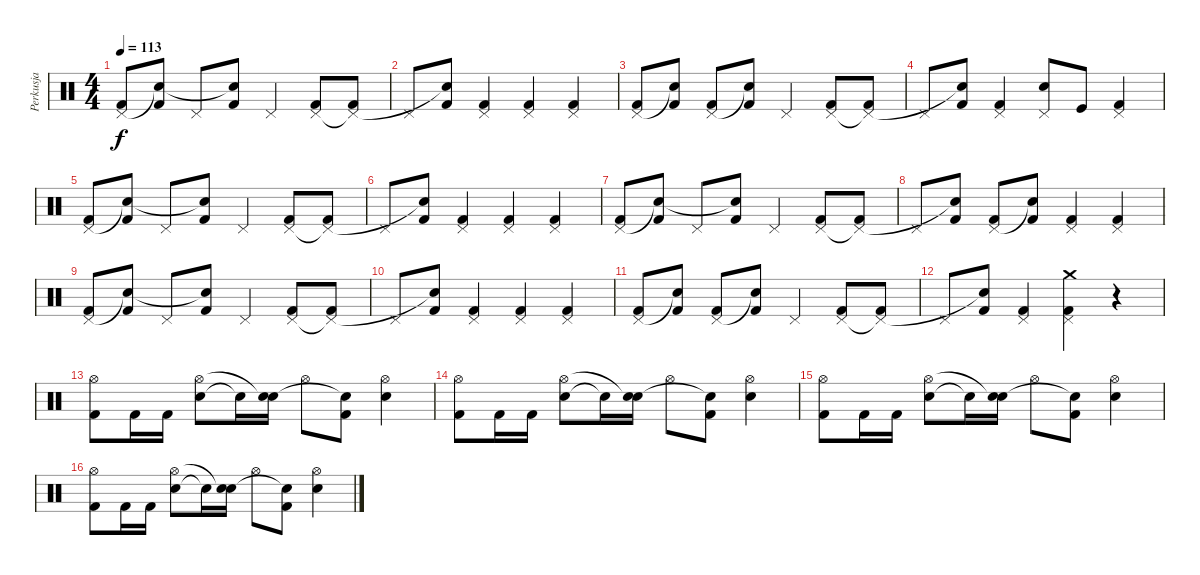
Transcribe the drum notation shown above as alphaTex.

\track ("Perkusja" "Perkusja") {instrument percussion}
\staff {score}
\articulation defaults
\ts (4 4)
\tempo 113
\clef neutral
\ks c
("Kick (hit) 2" "Pedal Hi-Hat (hit)").8{dy f} ("Kick (hit) 2" "Snare (hit)"{t}).8 "Pedal Hi-Hat (hit)".8 ("Kick (hit) 2" "Snare (hit)"{t}).8 "Pedal Hi-Hat (hit)".4 ("Kick (hit) 2" "Pedal Hi-Hat (hit)").8 ("Kick (hit) 2" "Pedal Hi-Hat (hit)"{t}).8 |
"Pedal Hi-Hat (hit)".8 ("Kick (hit) 2" "Snare (hit)"{t}).8 ("Kick (hit) 2" "Pedal Hi-Hat (hit)").4 ("Kick (hit) 2" "Pedal Hi-Hat (hit)").4 ("Kick (hit) 2" "Pedal Hi-Hat (hit)").4 |
("Kick (hit) 2" "Pedal Hi-Hat (hit)").8 ("Kick (hit) 2" "Snare (hit)"{t}).8 ("Kick (hit) 2" "Pedal Hi-Hat (hit)").8 ("Kick (hit) 2" "Snare (hit)"{t}).8 "Pedal Hi-Hat (hit)".4 ("Kick (hit) 2" "Pedal Hi-Hat (hit)").8 ("Kick (hit) 2" "Pedal Hi-Hat (hit)"{t}).8 |
"Pedal Hi-Hat (hit)".8 ("Kick (hit) 2" "Snare (hit)"{t}).8 ("Kick (hit) 2" "Pedal Hi-Hat (hit)").4 ("Snare (hit) 2" "Pedal Hi-Hat (hit)").8 "Kick (hit)".8 ("Kick (hit) 2" "Pedal Hi-Hat (hit)").4 |
("Kick (hit) 2" "Pedal Hi-Hat (hit)").8 ("Kick (hit) 2" "Snare (hit)"{t}).8 "Pedal Hi-Hat (hit)".8 ("Kick (hit) 2" "Snare (hit)"{t}).8 "Pedal Hi-Hat (hit)".4 ("Kick (hit) 2" "Pedal Hi-Hat (hit)").8 ("Kick (hit) 2" "Pedal Hi-Hat (hit)"{t}).8 |
"Pedal Hi-Hat (hit)".8 ("Kick (hit) 2" "Snare (hit)"{t}).8 ("Kick (hit) 2" "Pedal Hi-Hat (hit)").4 ("Kick (hit) 2" "Pedal Hi-Hat (hit)").4 ("Kick (hit) 2" "Pedal Hi-Hat (hit)").4 |
("Kick (hit) 2" "Pedal Hi-Hat (hit)").8 ("Kick (hit) 2" "Snare (hit)"{t}).8 "Pedal Hi-Hat (hit)".8 ("Kick (hit) 2" "Snare (hit)"{t}).8 "Pedal Hi-Hat (hit)".4 ("Kick (hit) 2" "Pedal Hi-Hat (hit)").8 ("Kick (hit) 2" "Pedal Hi-Hat (hit)"{t}).8 |
"Pedal Hi-Hat (hit)".8 ("Kick (hit) 2" "Snare (hit)"{t}).8 ("Kick (hit) 2" "Pedal Hi-Hat (hit)").8 ("Kick (hit) 2" "Snare (hit)"{t}).8 ("Kick (hit) 2" "Pedal Hi-Hat (hit)").4 ("Kick (hit) 2" "Pedal Hi-Hat (hit)").4 |
("Kick (hit) 2" "Pedal Hi-Hat (hit)").8 ("Kick (hit) 2" "Snare (hit)"{t}).8 "Pedal Hi-Hat (hit)".8 ("Kick (hit) 2" "Snare (hit)"{t}).8 "Pedal Hi-Hat (hit)".4 ("Kick (hit) 2" "Pedal Hi-Hat (hit)").8 ("Kick (hit) 2" "Pedal Hi-Hat (hit)"{t}).8 |
"Pedal Hi-Hat (hit)".8 ("Kick (hit) 2" "Snare (hit)"{t}).8 ("Kick (hit) 2" "Pedal Hi-Hat (hit)").4 ("Kick (hit) 2" "Pedal Hi-Hat (hit)").4 ("Kick (hit) 2" "Pedal Hi-Hat (hit)").4 |
("Kick (hit) 2" "Pedal Hi-Hat (hit)").8 ("Kick (hit) 2" "Snare (hit)"{t}).8 ("Kick (hit) 2" "Pedal Hi-Hat (hit)").8 ("Kick (hit) 2" "Snare (hit)"{t}).8 "Pedal Hi-Hat (hit)".4 ("Kick (hit) 2" "Pedal Hi-Hat (hit)").8 ("Kick (hit) 2" "Pedal Hi-Hat (hit)"{t}).8 |
"Pedal Hi-Hat (hit)".8 ("Kick (hit) 2" "Snare (hit)"{t}).8 ("Kick (hit) 2" "Pedal Hi-Hat (hit)").4 ("Crash medium (hit)" "Kick (hit) 2" "Pedal Hi-Hat (hit)").4 r.4 |
("Kick (hit) 2" "Hi-Hat (open)").8 "Kick (hit) 2".16 "Kick (hit) 2".16 ("Snare (hit) 2" "Hi-Hat (open)").8 "Snare (hit)"{t}.16 ("Snare (hit) 2" "Snare (hit)"{t}).16 "Hi-Hat (open)".8 ("Kick (hit) 2" "Snare (hit)"{t}).8 ("Snare (hit) 2" "Hi-Hat (open)").4 |
("Kick (hit) 2" "Hi-Hat (open)").8 "Kick (hit) 2".16 "Kick (hit) 2".16 ("Snare (hit) 2" "Hi-Hat (open)").8 "Snare (hit)"{t}.16 ("Snare (hit) 2" "Snare (hit)"{t}).16 "Hi-Hat (open)".8 ("Kick (hit) 2" "Snare (hit)"{t}).8 ("Snare (hit) 2" "Hi-Hat (open)").4 |
("Kick (hit) 2" "Hi-Hat (open)").8 "Kick (hit) 2".16 "Kick (hit) 2".16 ("Snare (hit) 2" "Hi-Hat (open)").8 "Snare (hit)"{t}.16 ("Snare (hit) 2" "Snare (hit)"{t}).16 "Hi-Hat (open)".8 ("Kick (hit) 2" "Snare (hit)"{t}).8 ("Snare (hit) 2" "Hi-Hat (open)").4 |
("Kick (hit) 2" "Hi-Hat (open)").8 "Kick (hit) 2".16 "Kick (hit) 2".16 ("Snare (hit) 2" "Hi-Hat (open)").8 "Snare (hit)"{t}.16 ("Snare (hit) 2" "Snare (hit)"{t}).16 "Hi-Hat (open)".8 ("Kick (hit) 2" "Snare (hit)"{t}).8 ("Snare (hit) 2" "Hi-Hat (open)").4
